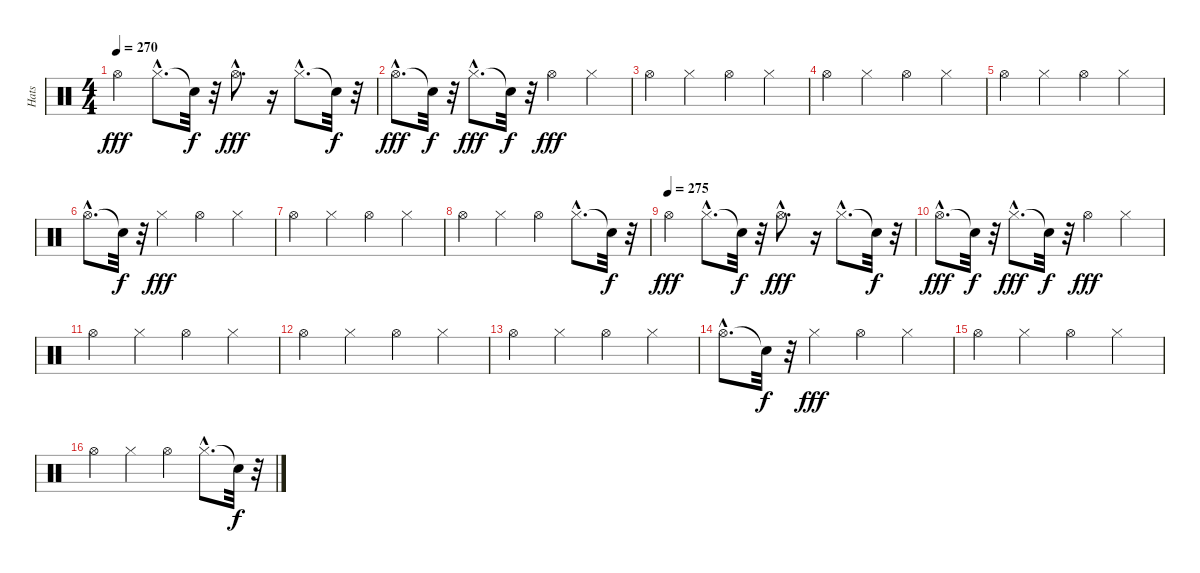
\track ("Hats" "Hats") {instrument percussion}
\staff {score}
\articulation defaults
\ts (4 4)
\tempo 270
\clef neutral
\ks c "Hi-Hat (open)".4{dy fff} "Hi-Hat (closed)"{hac}.8{d} "Snare (hit)"{t}.32{dy f}
r.32 "Hi-Hat (open)"{hac}.8{d dy fff} r.16 "Hi-Hat (closed)"{hac}.8{d} "Snare (hit)"{t}.32{dy f} r.32 |
"Hi-Hat (open)"{hac}.8{d dy fff} "Snare (hit)"{t}.32{dy f} r.32 "Hi-Hat (closed)"{hac}.8{d dy fff} "Snare (hit)"{t}.32{dy f} r.32 "Hi-Hat (open)".4{dy fff} "Hi-Hat (closed)".4 |
"Hi-Hat (open)".4 "Hi-Hat (closed)".4 "Hi-Hat (open)".4 "Hi-Hat (closed)".4 |
"Hi-Hat (open)".4 "Hi-Hat (closed)".4 "Hi-Hat (open)".4 "Hi-Hat (closed)".4 |
"Hi-Hat (open)".4 "Hi-Hat (closed)".4 "Hi-Hat (open)".4 "Hi-Hat (closed)".4 |
"Hi-Hat (open)"{hac}.8{d} "Snare (hit)"{t}.32{dy f} r.32 "Hi-Hat (closed)".4{dy fff} "Hi-Hat (open)".4 "Hi-Hat (closed)".4 |
"Hi-Hat (open)".4 "Hi-Hat (closed)".4 "Hi-Hat (open)".4 "Hi-Hat (closed)".4 |
"Hi-Hat (open)".4 "Hi-Hat (closed)".4 "Hi-Hat (open)".4 "Hi-Hat (closed)"{hac}.8{d} "Snare (hit)"{t}.32{dy f} r.32 |
\tempo (275)
"Hi-Hat (open)".4{dy fff} "Hi-Hat (closed)"{hac}.8{d} "Snare (hit)"{t}.32{dy f} r.32 "Hi-Hat (open)"{hac}.8{d dy fff} r.16 "Hi-Hat (closed)"{hac}.8{d} "Snare (hit)"{t}.32{dy f} r.32 |
"Hi-Hat (open)"{hac}.8{d dy fff} "Snare (hit)"{t}.32{dy f} r.32 "Hi-Hat (closed)"{hac}.8{d dy fff} "Snare (hit)"{t}.32{dy f} r.32 "Hi-Hat (open)".4{dy fff} "Hi-Hat (closed)".4 |
"Hi-Hat (open)".4 "Hi-Hat (closed)".4 "Hi-Hat (open)".4 "Hi-Hat (closed)".4 |
"Hi-Hat (open)".4 "Hi-Hat (closed)".4 "Hi-Hat (open)".4 "Hi-Hat (closed)".4 |
"Hi-Hat (open)".4 "Hi-Hat (closed)".4 "Hi-Hat (open)".4 "Hi-Hat (closed)".4 |
"Hi-Hat (open)"{hac}.8{d} "Snare (hit)"{t}.32{dy f} r.32 "Hi-Hat (closed)".4{dy fff} "Hi-Hat (open)".4 "Hi-Hat (closed)".4 |
"Hi-Hat (open)".4 "Hi-Hat (closed)".4 "Hi-Hat (open)".4 "Hi-Hat (closed)".4 |
"Hi-Hat (open)".4 "Hi-Hat (closed)".4 "Hi-Hat (open)".4 "Hi-Hat (closed)"{hac}.8{d} "Snare (hit)"{t}.32{dy f} r.32
